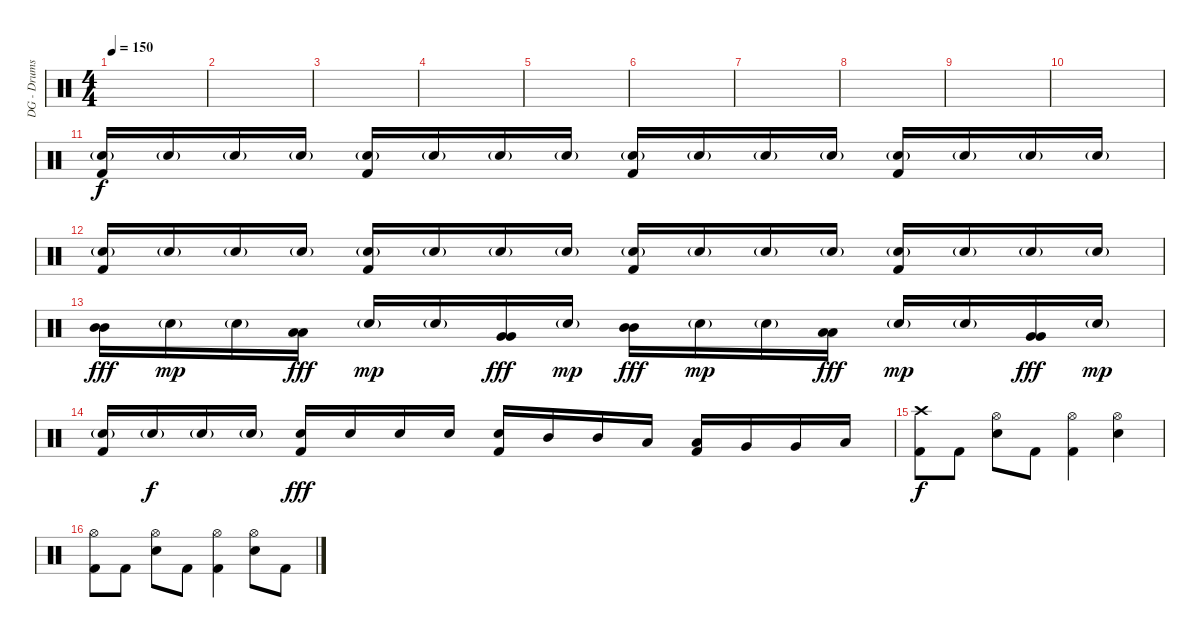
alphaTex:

\track ("DG - Drums" "DG - Drums") {instrument percussion}
\staff {score}
\articulation defaults
\ts (4 4)
\tempo 150
\clef neutral
\ks c
|
|
|
|
|
|
|
|
|
|
("Electric Snare (hit)"{g} "Kick (hit) 2").16 "Electric Snare (hit)"{g}.16 "Electric Snare (hit)"{g}.16 "Electric Snare (hit)"{g}.16 ("Electric Snare (hit)"{g} "Kick (hit) 2").16 "Electric Snare (hit)"{g}.16 "Electric Snare (hit)"{g}.16 "Electric Snare (hit)"{g}.16 ("Electric Snare (hit)"{g} "Kick (hit) 2").16 "Electric Snare (hit)"{g}.16 "Electric Snare (hit)"{g}.16 "Electric Snare (hit)"{g}.16 ("Electric Snare (hit)"{g} "Kick (hit) 2").16 "Electric Snare (hit)"{g}.16 "Electric Snare (hit)"{g}.16 "Electric Snare (hit)"{g}.16 |
("Electric Snare (hit)"{g} "Kick (hit) 2").16 "Electric Snare (hit)"{g}.16 "Electric Snare (hit)"{g}.16 "Electric Snare (hit)"{g}.16 ("Electric Snare (hit)"{g} "Kick (hit) 2").16 "Electric Snare (hit)"{g}.16 "Electric Snare (hit)"{g}.16 "Electric Snare (hit)"{g}.16 ("Electric Snare (hit)"{g} "Kick (hit) 2").16 "Electric Snare (hit)"{g}.16 "Electric Snare (hit)"{g}.16 "Electric Snare (hit)"{g}.16 ("Electric Snare (hit)"{g} "Kick (hit) 2").16 "Electric Snare (hit)"{g}.16 "Electric Snare (hit)"{g}.16 "Electric Snare (hit)"{g}.16 |
("Mid Tom (hit)" "Mid Tom (hit)").16{dy fff} "Electric Snare (hit)"{g}.16{dy mp} "Electric Snare (hit)"{g}.16 ("Low Tom (hit)" "Low Tom (hit)").16{dy fff} "Electric Snare (hit)"{g}.16{dy mp} "Electric Snare (hit)"{g}.16 ("Very Low Tom (hit)" "Very Low Tom (hit)").16{dy fff} "Electric Snare (hit)"{g}.16{dy mp} ("Mid Tom (hit)" "Mid Tom (hit)").16{dy fff} "Electric Snare (hit)"{g}.16{dy mp} "Electric Snare (hit)"{g}.16 ("Low Tom (hit)" "Low Tom (hit)").16{dy fff} "Electric Snare (hit)"{g}.16{dy mp} "Electric Snare (hit)"{g}.16 ("Very Low Tom (hit)" "Very Low Tom (hit)").16{dy fff} "Electric Snare (hit)"{g}.16{dy mp} |
("Electric Snare (hit)"{g} "Kick (hit) 2").16 "Electric Snare (hit)"{g}.16{dy f} "Electric Snare (hit)"{g}.16 "Electric Snare (hit)"{g}.16 ("Electric Snare (hit)" "Kick (hit) 2").16{dy fff} "Electric Snare (hit)".16 "Electric Snare (hit)".16 "Electric Snare (hit)".16 ("Electric Snare (hit)" "Kick (hit) 2").16 "Mid Tom (hit)".16 "Mid Tom (hit)".16 "Low Tom (hit)".16 ("Low Tom (hit)" "Kick (hit) 2").16 "Very Low Tom (hit)".16 "Very Low Tom (hit)".16 "Low Floor Tom (hit)".16 |
("Crash high (hit)" "Kick (hit) 2").8{dy f} "Kick (hit) 2".8 ("Hi-Hat (open)" "Electric Snare (hit)").8 "Kick (hit) 2".8 ("Hi-Hat (open)" "Kick (hit) 2").4 ("Hi-Hat (open)" "Electric Snare (hit)").4 |
("Hi-Hat (open)" "Kick (hit) 2").8 "Kick (hit) 2".8 ("Hi-Hat (open)" "Electric Snare (hit)").8 "Kick (hit) 2".8 ("Hi-Hat (open)" "Kick (hit) 2").4 ("Hi-Hat (open)" "Electric Snare (hit)").8 "Kick (hit) 2".8
